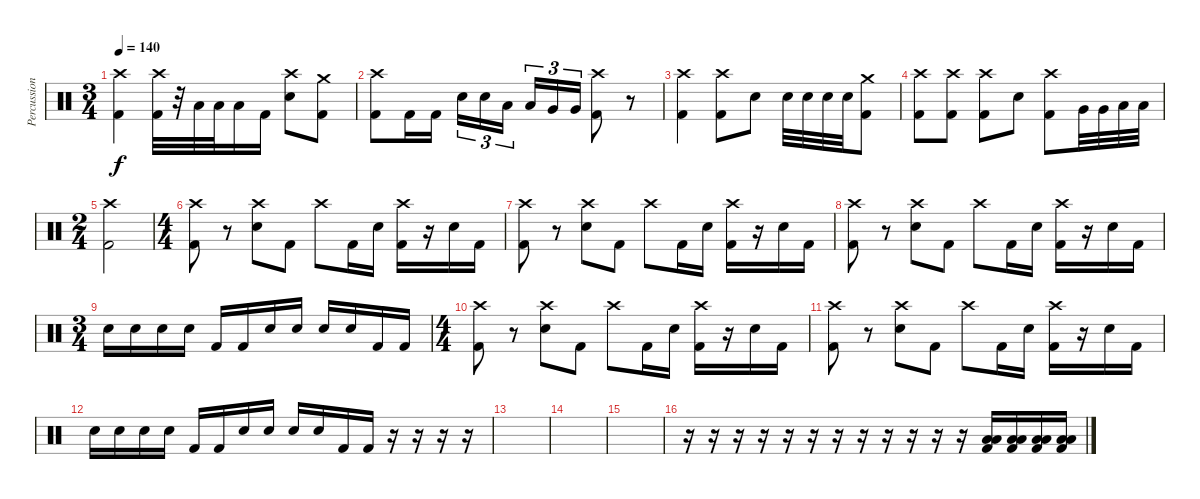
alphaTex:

\track ("Percussions" "Percussion") {instrument percussion}
\staff {score}
\articulation defaults
\ts (3 4)
\tempo 140
\clef neutral
\ks c
("Kick (hit) 2" "Crash high (hit)").4{dy f} ("Kick (hit) 2" "Crash high (hit)").32 r.32 "Low Floor Tom (hit)".32 "Low Floor Tom (hit)".32 "Low Floor Tom (hit)".16 "Kick (hit) 2".16 ("Electric Snare (hit)" "Crash high (hit)").8 ("Kick (hit) 2" "Crash medium (hit)").8 |
("Kick (hit) 2" "Crash high (hit)").8 "Kick (hit) 2".16 "Kick (hit) 2".16 "Electric Snare (hit)".16{tu (3 2)} "Electric Snare (hit)".16{tu (3 2)} "Low Tom (hit)".16{tu (3 2) beam splitsecondary} "Low Tom (hit)".16{tu (3 2)} "Very Low Tom (hit)".16{tu (3 2)} "Very Low Tom (hit)".16{tu (3 2)} ("Kick (hit) 2" "Crash high (hit)").8 r.8 |
("Kick (hit) 2" "Crash high (hit)").4 ("Kick (hit) 2" "Crash high (hit)").8 "Electric Snare (hit)".8 "Electric Snare (hit)".32 "Electric Snare (hit)".32 "Electric Snare (hit)".32 "Electric Snare (hit)".32 ("Kick (hit) 2" "Crash medium (hit)").8 |
("Kick (hit) 2" "Crash high (hit)").8 ("Kick (hit) 2" "Crash high (hit)").8 ("Kick (hit) 2" "Crash high (hit)").8 "Electric Snare (hit)".8 ("Kick (hit) 2" "Crash high (hit)").8 "Very Low Tom (hit)".32 "Very Low Tom (hit)".32 "Low Tom (hit)".32 "Low Tom (hit)".32 |
\ts (2 4)
("Kick (hit) 2" "Crash high (hit)").2 |
\ts (4 4)
("Kick (hit) 2" "Crash high (hit)").8 r.8 ("Electric Snare (hit)" "Crash high (hit)").8 "Kick (hit) 2".8 "Crash high (hit)".8 "Kick (hit) 2".16 "Electric Snare (hit)".16 ("Kick (hit) 2" "Crash high (hit)").16 r.16 "Electric Snare (hit)".16 "Kick (hit) 2".16 |
("Kick (hit) 2" "Crash high (hit)").8 r.8 ("Electric Snare (hit)" "Crash high (hit)").8 "Kick (hit) 2".8 "Crash high (hit)".8 "Kick (hit) 2".16 "Electric Snare (hit)".16 ("Kick (hit) 2" "Crash high (hit)").16 r.16 "Electric Snare (hit)".16 "Kick (hit) 2".16 |
("Kick (hit) 2" "Crash high (hit)").8 r.8 ("Electric Snare (hit)" "Crash high (hit)").8 "Kick (hit) 2".8 "Crash high (hit)".8 "Kick (hit) 2".16 "Electric Snare (hit)".16 ("Kick (hit) 2" "Crash high (hit)").16 r.16 "Electric Snare (hit)".16 "Kick (hit) 2".16 |
\ts (3 4)
"Electric Snare (hit)".16 "Electric Snare (hit)".16 "Electric Snare (hit)".16 "Electric Snare (hit)".16 "Kick (hit) 2".16 "Kick (hit) 2".16 "Electric Snare (hit)".16 "Electric Snare (hit)".16 "Electric Snare (hit)".16 "Electric Snare (hit)".16 "Kick (hit) 2".16 "Kick (hit) 2".16 |
\ts (4 4)
("Kick (hit) 2" "Crash high (hit)").8 r.8 ("Electric Snare (hit)" "Crash high (hit)").8 "Kick (hit) 2".8 "Crash high (hit)".8 "Kick (hit) 2".16 "Electric Snare (hit)".16 ("Kick (hit) 2" "Crash high (hit)").16 r.16 "Electric Snare (hit)".16 "Kick (hit) 2".16 |
("Kick (hit) 2" "Crash high (hit)").8 r.8 ("Electric Snare (hit)" "Crash high (hit)").8 "Kick (hit) 2".8 "Crash high (hit)".8 "Kick (hit) 2".16 "Electric Snare (hit)".16 ("Kick (hit) 2" "Crash high (hit)").16 r.16 "Electric Snare (hit)".16 "Kick (hit) 2".16 |
"Electric Snare (hit)".16 "Electric Snare (hit)".16 "Electric Snare (hit)".16 "Electric Snare (hit)".16 "Kick (hit) 2".16 "Kick (hit) 2".16 "Electric Snare (hit)".16 "Electric Snare (hit)".16 "Electric Snare (hit)".16 "Electric Snare (hit)".16 "Kick (hit) 2".16 "Kick (hit) 2".16 r.16 r.16 r.16 r.16 |
|
|
|
r.16 r.16 r.16 r.16 r.16 r.16 r.16 r.16 r.16 r.16 r.16 r.16 ("Kick (hit) 2" "Low Tom (hit)" "Low Floor Tom (hit)").16 ("Kick (hit) 2" "Low Tom (hit)" "Low Floor Tom (hit)").16 ("Kick (hit) 2" "Low Tom (hit)" "Low Floor Tom (hit)").16 ("Kick (hit) 2" "Low Tom (hit)" "Low Floor Tom (hit)").16
